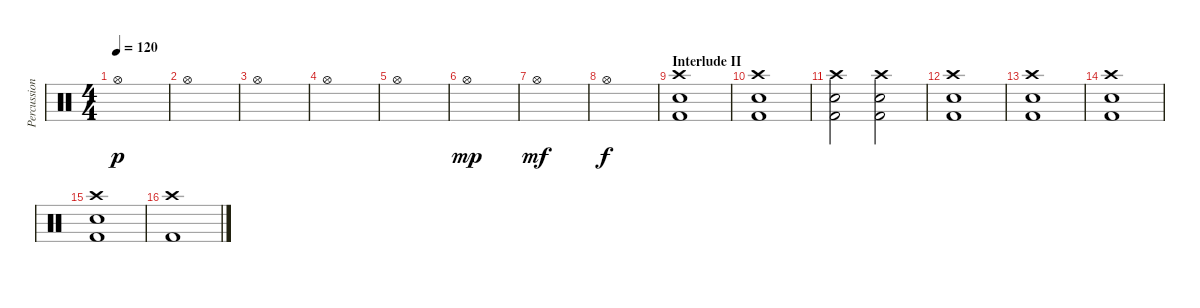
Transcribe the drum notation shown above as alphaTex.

\track ("Percussion" "Percussion") {instrument percussion}
\staff {score}
\articulation defaults
\ts (4 4)
\tempo 120
\clef neutral
\ks c "Hi-Hat (open)".1{dy p}
|
"Hi-Hat (open)".1 |
"Hi-Hat (open)".1 |
"Hi-Hat (open)".1 |
"Hi-Hat (open)".1 |
"Hi-Hat (open)".1{dy mp} |
"Hi-Hat (open)".1{dy mf} |
"Hi-Hat (open)".1{dy f} |
\section ("" "Interlude II")
("Crash high (hit)" "Electric Snare (hit)" "Kick (hit) 2").1 |
("Crash high (hit)" "Electric Snare (hit)" "Kick (hit) 2").1 |
("Crash high (hit)" "Electric Snare (hit)" "Kick (hit) 2").2 ("Crash high (hit)" "Electric Snare (hit)" "Kick (hit) 2").2 |
("Crash high (hit)" "Electric Snare (hit)" "Kick (hit) 2").1 |
("Crash high (hit)" "Electric Snare (hit)" "Kick (hit) 2").1 |
("Crash high (hit)" "Electric Snare (hit)" "Kick (hit) 2").1 |
("Crash high (hit)" "Electric Snare (hit)" "Kick (hit) 2").1 |
("Crash high (hit)" "Kick (hit) 2").1
